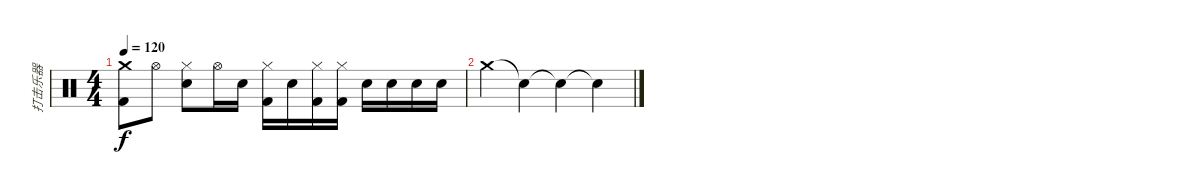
\track ("打击乐器" "打击乐器") {instrument percussion}
\staff {score}
\articulation defaults
\ts (4 4)
\tempo 120
\clef neutral
\ks c
("Crash medium (hit)" "Kick (hit) 2").8{dy f} "Hi-Hat (open)".8 ("Hi-Hat (closed)" "Snare (hit) 2").8 "Hi-Hat (open)".16 "Snare (hit) 2".16 ("Hi-Hat (closed)" "Kick (hit) 2").16 "Snare (hit) 2".16 ("Hi-Hat (closed)" "Kick (hit) 2").16 ("Hi-Hat (closed)" "Kick (hit) 2").16 "Snare (hit) 2".16 "Snare (hit) 2".16 "Snare (hit) 2".16 "Snare (hit) 2".16 |
"Crash medium (hit)".4 "Snare (hit)"{t}.4 "Snare (hit)"{t}.4 "Snare (hit)"{t}.4
